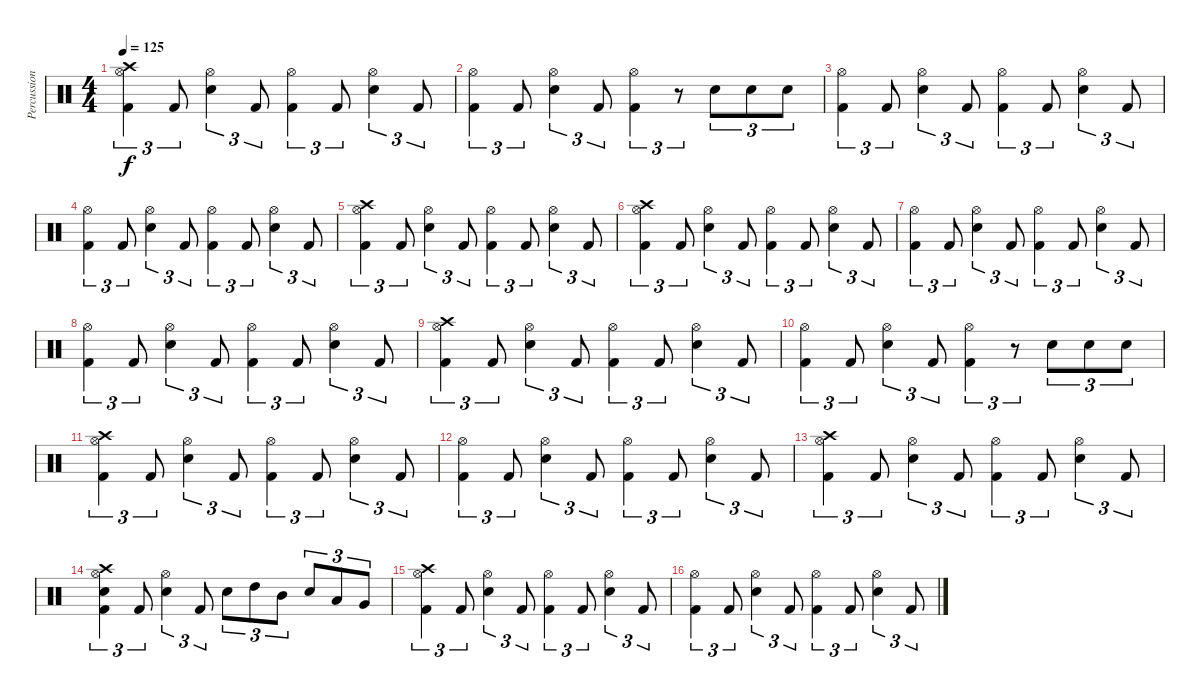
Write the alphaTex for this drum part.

\track ("Percussion" "Percussion") {instrument percussion}
\staff {score}
\articulation defaults
\ts (4 4)
\tempo 125
\clef neutral
\ks c
("Crash high (hit)" "Hi-Hat (open)" "Kick (hit) 2").4{tu (3 2) dy f} "Kick (hit) 2".8{tu (3 2)} ("Hi-Hat (open)" "Snare (hit) 2").4{tu (3 2)} "Kick (hit) 2".8{tu (3 2)} ("Hi-Hat (open)" "Kick (hit) 2").4{tu (3 2)} "Kick (hit) 2".8{tu (3 2)} ("Hi-Hat (open)" "Snare (hit) 2").4{tu (3 2)} "Kick (hit) 2".8{tu (3 2)} |
("Hi-Hat (open)" "Kick (hit) 2").4{tu (3 2)} "Kick (hit) 2".8{tu (3 2)} ("Hi-Hat (open)" "Snare (hit) 2").4{tu (3 2)} "Kick (hit) 2".8{tu (3 2)} ("Hi-Hat (open)" "Kick (hit) 2").4{tu (3 2)} r.8{tu (3 2)} "Snare (hit) 2".8{tu (3 2)} "Snare (hit) 2".8{tu (3 2)} "Snare (hit) 2".8{tu (3 2)} |
("Hi-Hat (open)" "Kick (hit) 2").4{tu (3 2)} "Kick (hit) 2".8{tu (3 2)} ("Hi-Hat (open)" "Snare (hit) 2").4{tu (3 2)} "Kick (hit) 2".8{tu (3 2)} ("Hi-Hat (open)" "Kick (hit) 2").4{tu (3 2)} "Kick (hit) 2".8{tu (3 2)} ("Hi-Hat (open)" "Snare (hit) 2").4{tu (3 2)} "Kick (hit) 2".8{tu (3 2)} |
("Hi-Hat (open)" "Kick (hit) 2").4{tu (3 2)} "Kick (hit) 2".8{tu (3 2)} ("Hi-Hat (open)" "Snare (hit) 2").4{tu (3 2)} "Kick (hit) 2".8{tu (3 2)} ("Hi-Hat (open)" "Kick (hit) 2").4{tu (3 2)} "Kick (hit) 2".8{tu (3 2)} ("Hi-Hat (open)" "Snare (hit) 2").4{tu (3 2)} "Kick (hit) 2".8{tu (3 2)} |
("Crash high (hit)" "Hi-Hat (open)" "Kick (hit) 2").4{tu (3 2)} "Kick (hit) 2".8{tu (3 2)} ("Hi-Hat (open)" "Snare (hit) 2").4{tu (3 2)} "Kick (hit) 2".8{tu (3 2)} ("Hi-Hat (open)" "Kick (hit) 2").4{tu (3 2)} "Kick (hit) 2".8{tu (3 2)} ("Hi-Hat (open)" "Snare (hit) 2").4{tu (3 2)} "Kick (hit) 2".8{tu (3 2)} |
("Crash high (hit)" "Hi-Hat (open)" "Kick (hit) 2").4{tu (3 2)} "Kick (hit) 2".8{tu (3 2)} ("Hi-Hat (open)" "Snare (hit) 2").4{tu (3 2)} "Kick (hit) 2".8{tu (3 2)} ("Hi-Hat (open)" "Kick (hit) 2").4{tu (3 2)} "Kick (hit) 2".8{tu (3 2)} ("Hi-Hat (open)" "Snare (hit) 2").4{tu (3 2)} "Kick (hit) 2".8{tu (3 2)} |
("Hi-Hat (open)" "Kick (hit) 2").4{tu (3 2)} "Kick (hit) 2".8{tu (3 2)} ("Hi-Hat (open)" "Snare (hit) 2").4{tu (3 2)} "Kick (hit) 2".8{tu (3 2)} ("Hi-Hat (open)" "Kick (hit) 2").4{tu (3 2)} "Kick (hit) 2".8{tu (3 2)} ("Hi-Hat (open)" "Snare (hit) 2").4{tu (3 2)} "Kick (hit) 2".8{tu (3 2)} |
("Hi-Hat (open)" "Kick (hit) 2").4{tu (3 2)} "Kick (hit) 2".8{tu (3 2)} ("Hi-Hat (open)" "Snare (hit) 2").4{tu (3 2)} "Kick (hit) 2".8{tu (3 2)} ("Hi-Hat (open)" "Kick (hit) 2").4{tu (3 2)} "Kick (hit) 2".8{tu (3 2)} ("Hi-Hat (open)" "Snare (hit) 2").4{tu (3 2)} "Kick (hit) 2".8{tu (3 2)} |
("Crash high (hit)" "Hi-Hat (open)" "Kick (hit) 2").4{tu (3 2)} "Kick (hit) 2".8{tu (3 2)} ("Hi-Hat (open)" "Snare (hit) 2").4{tu (3 2)} "Kick (hit) 2".8{tu (3 2)} ("Hi-Hat (open)" "Kick (hit) 2").4{tu (3 2)} "Kick (hit) 2".8{tu (3 2)} ("Hi-Hat (open)" "Snare (hit) 2").4{tu (3 2)} "Kick (hit) 2".8{tu (3 2)} |
("Hi-Hat (open)" "Kick (hit) 2").4{tu (3 2)} "Kick (hit) 2".8{tu (3 2)} ("Hi-Hat (open)" "Snare (hit) 2").4{tu (3 2)} "Kick (hit) 2".8{tu (3 2)} ("Hi-Hat (open)" "Kick (hit) 2").4{tu (3 2)} r.8{tu (3 2)} "Snare (hit) 2".8{tu (3 2)} "Snare (hit) 2".8{tu (3 2)} "Snare (hit) 2".8{tu (3 2)} |
("Crash high (hit)" "Hi-Hat (open)" "Kick (hit) 2").4{tu (3 2)} "Kick (hit) 2".8{tu (3 2)} ("Hi-Hat (open)" "Snare (hit) 2").4{tu (3 2)} "Kick (hit) 2".8{tu (3 2)} ("Hi-Hat (open)" "Kick (hit) 2").4{tu (3 2)} "Kick (hit) 2".8{tu (3 2)} ("Hi-Hat (open)" "Snare (hit) 2").4{tu (3 2)} "Kick (hit) 2".8{tu (3 2)} |
("Hi-Hat (open)" "Kick (hit) 2").4{tu (3 2)} "Kick (hit) 2".8{tu (3 2)} ("Hi-Hat (open)" "Snare (hit) 2").4{tu (3 2)} "Kick (hit) 2".8{tu (3 2)} ("Hi-Hat (open)" "Kick (hit) 2").4{tu (3 2)} "Kick (hit) 2".8{tu (3 2)} ("Hi-Hat (open)" "Snare (hit) 2").4{tu (3 2)} "Kick (hit) 2".8{tu (3 2)} |
("Crash high (hit)" "Hi-Hat (open)" "Kick (hit) 2").4{tu (3 2)} "Kick (hit) 2".8{tu (3 2)} ("Hi-Hat (open)" "Snare (hit) 2").4{tu (3 2)} "Kick (hit) 2".8{tu (3 2)} ("Hi-Hat (open)" "Kick (hit) 2").4{tu (3 2)} "Kick (hit) 2".8{tu (3 2)} ("Hi-Hat (open)" "Snare (hit) 2").4{tu (3 2)} "Kick (hit) 2".8{tu (3 2)} |
("Crash high (hit)" "Hi-Hat (open)" "Snare (hit) 2" "Kick (hit) 2").4{tu (3 2)} "Kick (hit) 2".8{tu (3 2)} ("Hi-Hat (open)" "Snare (hit) 2").4{tu (3 2)} "Kick (hit) 2".8{tu (3 2)} "Snare (hit) 2".8{tu (3 2)} "High Tom (hit)".8{tu (3 2)} "Mid Tom (hit)".8{tu (3 2)} "Snare (hit) 2".8{tu (3 2)} "Low Tom (hit)".8{tu (3 2)} "Very Low Tom (hit)".8{tu (3 2)} |
("Crash high (hit)" "Hi-Hat (open)" "Kick (hit) 2").4{tu (3 2)} "Kick (hit) 2".8{tu (3 2)} ("Hi-Hat (open)" "Snare (hit) 2").4{tu (3 2)} "Kick (hit) 2".8{tu (3 2)} ("Hi-Hat (open)" "Kick (hit) 2").4{tu (3 2)} "Kick (hit) 2".8{tu (3 2)} ("Hi-Hat (open)" "Snare (hit) 2").4{tu (3 2)} "Kick (hit) 2".8{tu (3 2)} |
("Hi-Hat (open)" "Kick (hit) 2").4{tu (3 2)} "Kick (hit) 2".8{tu (3 2)} ("Hi-Hat (open)" "Snare (hit) 2").4{tu (3 2)} "Kick (hit) 2".8{tu (3 2)} ("Hi-Hat (open)" "Kick (hit) 2").4{tu (3 2)} "Kick (hit) 2".8{tu (3 2)} ("Hi-Hat (open)" "Snare (hit) 2").4{tu (3 2)} "Kick (hit) 2".8{tu (3 2)}
